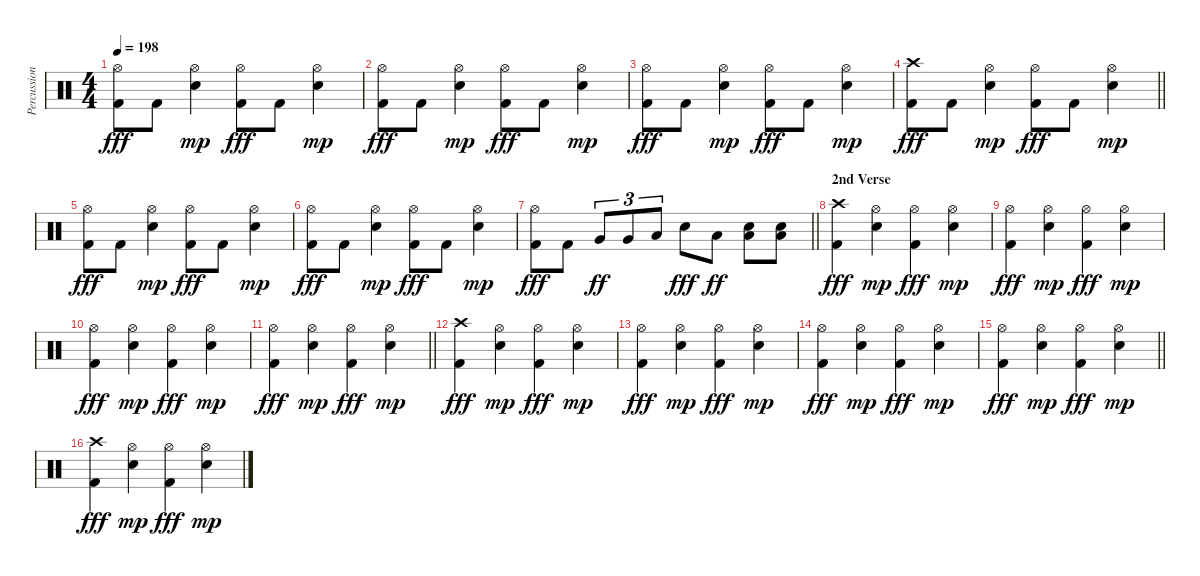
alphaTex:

\track ("Percussion" "Percussion") {instrument percussion}
\staff {score}
\articulation defaults
\ts (4 4)
\tempo 198
\clef neutral
\ks c
("Hi-Hat (open)" "Kick (hit) 2").8{dy fff} "Kick (hit) 2".8 ("Hi-Hat (open)" "Snare (hit) 2").4{dy mp} ("Hi-Hat (open)" "Kick (hit) 2").8{dy fff} "Kick (hit) 2".8 ("Hi-Hat (open)" "Snare (hit) 2").4{dy mp} |
("Hi-Hat (open)" "Kick (hit) 2").8{dy fff} "Kick (hit) 2".8 ("Hi-Hat (open)" "Snare (hit) 2").4{dy mp} ("Hi-Hat (open)" "Kick (hit) 2").8{dy fff} "Kick (hit) 2".8 ("Hi-Hat (open)" "Snare (hit) 2").4{dy mp} |
("Hi-Hat (open)" "Kick (hit) 2").8{dy fff} "Kick (hit) 2".8 ("Hi-Hat (open)" "Snare (hit) 2").4{dy mp} ("Hi-Hat (open)" "Kick (hit) 2").8{dy fff} "Kick (hit) 2".8 ("Hi-Hat (open)" "Snare (hit) 2").4{dy mp} |
\barLineRight lightlight
("Crash high (hit)" "Kick (hit) 2").8{dy fff} "Kick (hit) 2".8 ("Hi-Hat (open)" "Snare (hit) 2").4{dy mp} ("Hi-Hat (open)" "Kick (hit) 2").8{dy fff} "Kick (hit) 2".8 ("Hi-Hat (open)" "Snare (hit) 2").4{dy mp} |
("Hi-Hat (open)" "Kick (hit) 2").8{dy fff} "Kick (hit) 2".8 ("Hi-Hat (open)" "Snare (hit) 2").4{dy mp} ("Hi-Hat (open)" "Kick (hit) 2").8{dy fff} "Kick (hit) 2".8 ("Hi-Hat (open)" "Snare (hit) 2").4{dy mp} |
("Hi-Hat (open)" "Kick (hit) 2").8{dy fff} "Kick (hit) 2".8 ("Hi-Hat (open)" "Snare (hit) 2").4{dy mp} ("Hi-Hat (open)" "Kick (hit) 2").8{dy fff} "Kick (hit) 2".8 ("Hi-Hat (open)" "Snare (hit) 2").4{dy mp} |
\barLineRight lightlight
("Hi-Hat (open)" "Kick (hit) 2").8{dy fff} "Kick (hit) 2".8 "Very Low Tom (hit)".8{tu (3 2) dy ff} "Very Low Tom (hit)".8{tu (3 2)} "Low Tom (hit)".8{tu (3 2)} "Snare (hit) 2".8{dy fff} "Low Tom (hit)".8{dy ff} ("Low Floor Tom (hit)" "Snare (hit) 2").8 ("Low Floor Tom (hit)" "Snare (hit) 2").8 |
\section ("" "2nd Verse")
("Crash high (hit)" "Kick (hit) 2").4{dy fff} ("Hi-Hat (open)" "Snare (hit) 2").4{dy mp} ("Hi-Hat (open)" "Kick (hit) 2").4{dy fff} ("Hi-Hat (open)" "Snare (hit) 2").4{dy mp} |
("Hi-Hat (open)" "Kick (hit) 2").4{dy fff} ("Hi-Hat (open)" "Snare (hit) 2").4{dy mp} ("Hi-Hat (open)" "Kick (hit) 2").4{dy fff} ("Hi-Hat (open)" "Snare (hit) 2").4{dy mp} |
("Hi-Hat (open)" "Kick (hit) 2").4{dy fff} ("Hi-Hat (open)" "Snare (hit) 2").4{dy mp} ("Hi-Hat (open)" "Kick (hit) 2").4{dy fff} ("Hi-Hat (open)" "Snare (hit) 2").4{dy mp} |
\barLineRight lightlight
("Hi-Hat (open)" "Kick (hit) 2").4{dy fff} ("Hi-Hat (open)" "Snare (hit) 2").4{dy mp} ("Hi-Hat (open)" "Kick (hit) 2").4{dy fff} ("Hi-Hat (open)" "Snare (hit) 2").4{dy mp} |
("Crash high (hit)" "Kick (hit) 2").4{dy fff} ("Hi-Hat (open)" "Snare (hit) 2").4{dy mp} ("Hi-Hat (open)" "Kick (hit) 2").4{dy fff} ("Hi-Hat (open)" "Snare (hit) 2").4{dy mp} |
("Hi-Hat (open)" "Kick (hit) 2").4{dy fff} ("Hi-Hat (open)" "Snare (hit) 2").4{dy mp} ("Hi-Hat (open)" "Kick (hit) 2").4{dy fff} ("Hi-Hat (open)" "Snare (hit) 2").4{dy mp} |
("Hi-Hat (open)" "Kick (hit) 2").4{dy fff} ("Hi-Hat (open)" "Snare (hit) 2").4{dy mp} ("Hi-Hat (open)" "Kick (hit) 2").4{dy fff} ("Hi-Hat (open)" "Snare (hit) 2").4{dy mp} |
\barLineRight lightlight
("Hi-Hat (open)" "Kick (hit) 2").4{dy fff} ("Hi-Hat (open)" "Snare (hit) 2").4{dy mp} ("Hi-Hat (open)" "Kick (hit) 2").4{dy fff} ("Hi-Hat (open)" "Snare (hit) 2").4{dy mp} |
("Crash high (hit)" "Kick (hit) 2").4{dy fff} ("Hi-Hat (open)" "Snare (hit) 2").4{dy mp} ("Hi-Hat (open)" "Kick (hit) 2").4{dy fff} ("Hi-Hat (open)" "Snare (hit) 2").4{dy mp}
